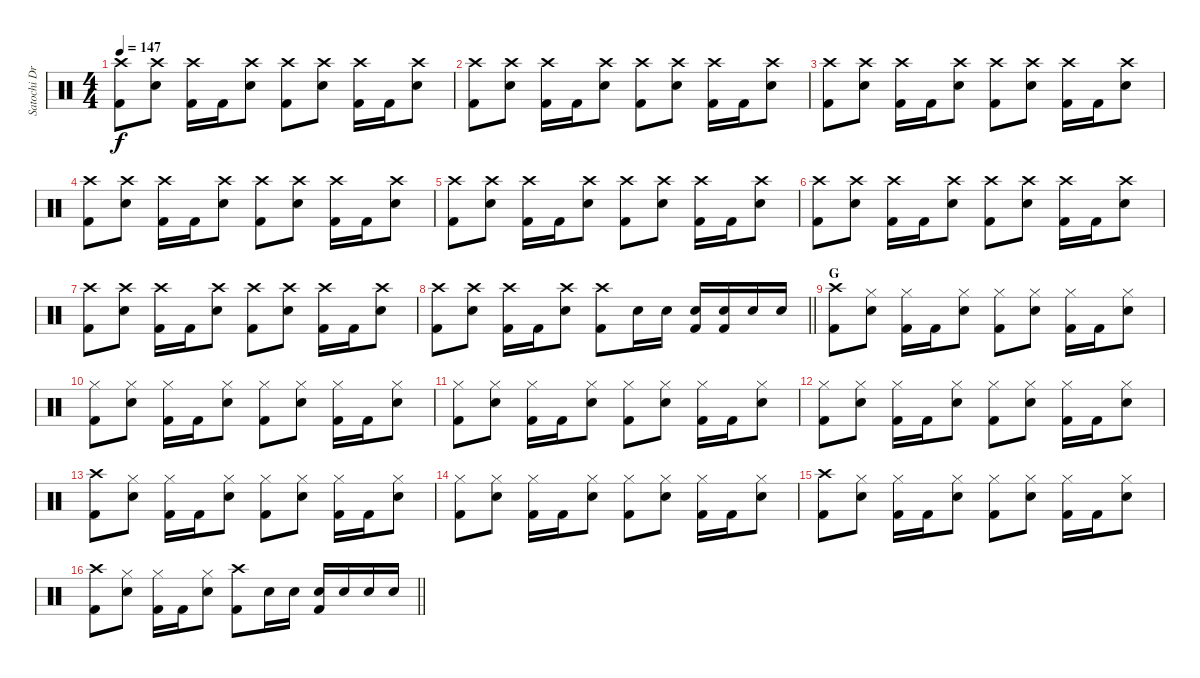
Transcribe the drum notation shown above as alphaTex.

\track ("Satochi Drums" "Satochi Dr") {instrument percussion}
\staff {score}
\articulation defaults
\ts (4 4)
\tempo 147
\clef neutral
\ks c
("Crash high (hit)" "Kick (hit) 2").8{dy f} ("Crash high (hit)" "Snare (hit) 2").8 ("Crash high (hit)" "Kick (hit) 2").16 "Kick (hit) 2".16 ("Crash high (hit)" "Snare (hit) 2").8 ("Crash high (hit)" "Kick (hit) 2").8 ("Crash high (hit)" "Snare (hit) 2").8 ("Crash high (hit)" "Kick (hit) 2").16 "Kick (hit) 2".16 ("Snare (hit) 2" "Crash high (hit)").8 |
("Crash high (hit)" "Kick (hit) 2").8 ("Crash high (hit)" "Snare (hit) 2").8 ("Crash high (hit)" "Kick (hit) 2").16 "Kick (hit) 2".16 ("Crash high (hit)" "Snare (hit) 2").8 ("Crash high (hit)" "Kick (hit) 2").8 ("Crash high (hit)" "Snare (hit) 2").8 ("Crash high (hit)" "Kick (hit) 2").16 "Kick (hit) 2".16 ("Snare (hit) 2" "Crash high (hit)").8 |
("Crash high (hit)" "Kick (hit) 2").8 ("Crash high (hit)" "Snare (hit) 2").8 ("Crash high (hit)" "Kick (hit) 2").16 "Kick (hit) 2".16 ("Crash high (hit)" "Snare (hit) 2").8 ("Crash high (hit)" "Kick (hit) 2").8 ("Crash high (hit)" "Snare (hit) 2").8 ("Crash high (hit)" "Kick (hit) 2").16 "Kick (hit) 2".16 ("Snare (hit) 2" "Crash high (hit)").8 |
("Crash high (hit)" "Kick (hit) 2").8 ("Crash high (hit)" "Snare (hit) 2").8 ("Crash high (hit)" "Kick (hit) 2").16 "Kick (hit) 2".16 ("Crash high (hit)" "Snare (hit) 2").8 ("Crash high (hit)" "Kick (hit) 2").8 ("Crash high (hit)" "Snare (hit) 2").8 ("Crash high (hit)" "Kick (hit) 2").16 "Kick (hit) 2".16 ("Snare (hit) 2" "Crash high (hit)").8 |
("Crash high (hit)" "Kick (hit) 2").8 ("Crash high (hit)" "Snare (hit) 2").8 ("Crash high (hit)" "Kick (hit) 2").16 "Kick (hit) 2".16 ("Crash high (hit)" "Snare (hit) 2").8 ("Crash high (hit)" "Kick (hit) 2").8 ("Crash high (hit)" "Snare (hit) 2").8 ("Crash high (hit)" "Kick (hit) 2").16 "Kick (hit) 2".16 ("Snare (hit) 2" "Crash high (hit)").8 |
("Crash high (hit)" "Kick (hit) 2").8 ("Crash high (hit)" "Snare (hit) 2").8 ("Crash high (hit)" "Kick (hit) 2").16 "Kick (hit) 2".16 ("Crash high (hit)" "Snare (hit) 2").8 ("Crash high (hit)" "Kick (hit) 2").8 ("Crash high (hit)" "Snare (hit) 2").8 ("Crash high (hit)" "Kick (hit) 2").16 "Kick (hit) 2".16 ("Snare (hit) 2" "Crash high (hit)").8 |
("Crash high (hit)" "Kick (hit) 2").8 ("Crash high (hit)" "Snare (hit) 2").8 ("Crash high (hit)" "Kick (hit) 2").16 "Kick (hit) 2".16 ("Crash high (hit)" "Snare (hit) 2").8 ("Crash high (hit)" "Kick (hit) 2").8 ("Crash high (hit)" "Snare (hit) 2").8 ("Crash high (hit)" "Kick (hit) 2").16 "Kick (hit) 2".16 ("Snare (hit) 2" "Crash high (hit)").8 |
\barLineRight lightlight
("Crash high (hit)" "Kick (hit) 2").8 ("Crash high (hit)" "Snare (hit) 2").8 ("Crash high (hit)" "Kick (hit) 2").16 "Kick (hit) 2".16 ("Crash high (hit)" "Snare (hit) 2").8 ("Crash high (hit)" "Kick (hit) 2").8 "Snare (hit) 2".16 "Snare (hit) 2".16 ("Snare (hit) 2" "Kick (hit) 2").16 ("Snare (hit) 2" "Kick (hit) 2").16 "Snare (hit) 2".16 "Snare (hit) 2".16 |
\section ("" "G")
("Crash high (hit)" "Kick (hit) 2").8 ("Hi-Hat (closed)" "Snare (hit) 2").8 ("Hi-Hat (closed)" "Kick (hit) 2").16 "Kick (hit) 2".16 ("Hi-Hat (closed)" "Snare (hit) 2").8 ("Hi-Hat (closed)" "Kick (hit) 2").8 ("Hi-Hat (closed)" "Snare (hit) 2").8 ("Hi-Hat (closed)" "Kick (hit) 2").16 "Kick (hit) 2".16 ("Hi-Hat (closed)" "Snare (hit) 2").8 |
("Hi-Hat (closed)" "Kick (hit) 2").8 ("Hi-Hat (closed)" "Snare (hit) 2").8 ("Hi-Hat (closed)" "Kick (hit) 2").16 "Kick (hit) 2".16 ("Hi-Hat (closed)" "Snare (hit) 2").8 ("Hi-Hat (closed)" "Kick (hit) 2").8 ("Hi-Hat (closed)" "Snare (hit) 2").8 ("Hi-Hat (closed)" "Kick (hit) 2").16 "Kick (hit) 2".16 ("Hi-Hat (closed)" "Snare (hit) 2").8 |
("Hi-Hat (closed)" "Kick (hit) 2").8 ("Hi-Hat (closed)" "Snare (hit) 2").8 ("Hi-Hat (closed)" "Kick (hit) 2").16 "Kick (hit) 2".16 ("Hi-Hat (closed)" "Snare (hit) 2").8 ("Hi-Hat (closed)" "Kick (hit) 2").8 ("Hi-Hat (closed)" "Snare (hit) 2").8 ("Hi-Hat (closed)" "Kick (hit) 2").16 "Kick (hit) 2".16 ("Hi-Hat (closed)" "Snare (hit) 2").8 |
("Hi-Hat (closed)" "Kick (hit) 2").8 ("Hi-Hat (closed)" "Snare (hit) 2").8 ("Hi-Hat (closed)" "Kick (hit) 2").16 "Kick (hit) 2".16 ("Hi-Hat (closed)" "Snare (hit) 2").8 ("Hi-Hat (closed)" "Kick (hit) 2").8 ("Hi-Hat (closed)" "Snare (hit) 2").8 ("Hi-Hat (closed)" "Kick (hit) 2").16 "Kick (hit) 2".16 ("Hi-Hat (closed)" "Snare (hit) 2").8 |
("Crash high (hit)" "Kick (hit) 2").8 ("Hi-Hat (closed)" "Snare (hit) 2").8 ("Hi-Hat (closed)" "Kick (hit) 2").16 "Kick (hit) 2".16 ("Hi-Hat (closed)" "Snare (hit) 2").8 ("Hi-Hat (closed)" "Kick (hit) 2").8 ("Hi-Hat (closed)" "Snare (hit) 2").8 ("Hi-Hat (closed)" "Kick (hit) 2").16 "Kick (hit) 2".16 ("Hi-Hat (closed)" "Snare (hit) 2").8 |
("Hi-Hat (closed)" "Kick (hit) 2").8 ("Hi-Hat (closed)" "Snare (hit) 2").8 ("Hi-Hat (closed)" "Kick (hit) 2").16 "Kick (hit) 2".16 ("Hi-Hat (closed)" "Snare (hit) 2").8 ("Hi-Hat (closed)" "Kick (hit) 2").8 ("Hi-Hat (closed)" "Snare (hit) 2").8 ("Hi-Hat (closed)" "Kick (hit) 2").16 "Kick (hit) 2".16 ("Hi-Hat (closed)" "Snare (hit) 2").8 |
("Crash high (hit)" "Kick (hit) 2").8 ("Hi-Hat (closed)" "Snare (hit) 2").8 ("Hi-Hat (closed)" "Kick (hit) 2").16 "Kick (hit) 2".16 ("Hi-Hat (closed)" "Snare (hit) 2").8 ("Hi-Hat (closed)" "Kick (hit) 2").8 ("Hi-Hat (closed)" "Snare (hit) 2").8 ("Hi-Hat (closed)" "Kick (hit) 2").16 "Kick (hit) 2".16 ("Hi-Hat (closed)" "Snare (hit) 2").8 |
\barLineRight lightlight
("Crash high (hit)" "Kick (hit) 2").8 ("Hi-Hat (closed)" "Snare (hit) 2").8 ("Hi-Hat (closed)" "Kick (hit) 2").16 "Kick (hit) 2".16 ("Hi-Hat (closed)" "Snare (hit) 2").8 ("Crash high (hit)" "Kick (hit) 2").8 "Snare (hit) 2".16 "Snare (hit) 2".16 ("Snare (hit) 2" "Kick (hit) 2").16 "Snare (hit) 2".16 "Snare (hit) 2".16 "Snare (hit) 2".16
